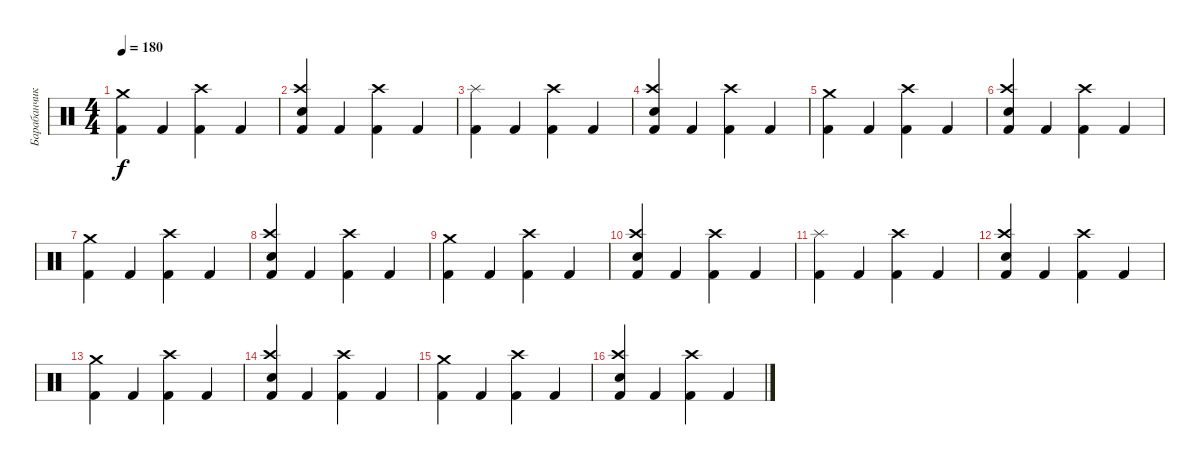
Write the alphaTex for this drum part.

\track ("Барабанчики" "Барабанчик") {instrument percussion}
\staff {score}
\articulation defaults
\ts (4 4)
\tempo 180
\clef neutral
\ks c
("Crash medium (hit)" "Kick (hit) 2").4{dy f} "Kick (hit) 2".4 ("Crash high (hit)" "Kick (hit) 2").4 "Kick (hit) 2".4 |
("Crash high (hit)" "Electric Snare (hit)" "Kick (hit) 2").4 "Kick (hit) 2".4 ("Crash high (hit)" "Kick (hit) 2").4 "Kick (hit) 2".4 |
("Splash (hit)" "Kick (hit) 2").4 "Kick (hit) 2".4 ("Crash high (hit)" "Kick (hit) 2").4 "Kick (hit) 2".4 |
("Crash high (hit)" "Electric Snare (hit)" "Kick (hit) 2").4 "Kick (hit) 2".4 ("Crash high (hit)" "Kick (hit) 2").4 "Kick (hit) 2".4 |
("Crash medium (hit)" "Kick (hit) 2").4 "Kick (hit) 2".4 ("Crash high (hit)" "Kick (hit) 2").4 "Kick (hit) 2".4 |
("Crash high (hit)" "Electric Snare (hit)" "Kick (hit) 2").4 "Kick (hit) 2".4 ("Crash high (hit)" "Kick (hit) 2").4 "Kick (hit) 2".4 |
("Crash medium (hit)" "Kick (hit) 2").4 "Kick (hit) 2".4 ("Crash high (hit)" "Kick (hit) 2").4 "Kick (hit) 2".4 |
("Crash high (hit)" "Electric Snare (hit)" "Kick (hit) 2").4 "Kick (hit) 2".4 ("Crash high (hit)" "Kick (hit) 2").4 "Kick (hit) 2".4 |
("Crash medium (hit)" "Kick (hit) 2").4 "Kick (hit) 2".4 ("Crash high (hit)" "Kick (hit) 2").4 "Kick (hit) 2".4 |
("Crash high (hit)" "Electric Snare (hit)" "Kick (hit) 2").4 "Kick (hit) 2".4 ("Crash high (hit)" "Kick (hit) 2").4 "Kick (hit) 2".4 |
("Splash (hit)" "Kick (hit) 2").4 "Kick (hit) 2".4 ("Crash high (hit)" "Kick (hit) 2").4 "Kick (hit) 2".4 |
("Crash high (hit)" "Electric Snare (hit)" "Kick (hit) 2").4 "Kick (hit) 2".4 ("Crash high (hit)" "Kick (hit) 2").4 "Kick (hit) 2".4 |
("Crash medium (hit)" "Kick (hit) 2").4 "Kick (hit) 2".4 ("Crash high (hit)" "Kick (hit) 2").4 "Kick (hit) 2".4 |
("Crash high (hit)" "Electric Snare (hit)" "Kick (hit) 2").4 "Kick (hit) 2".4 ("Crash high (hit)" "Kick (hit) 2").4 "Kick (hit) 2".4 |
("Crash medium (hit)" "Kick (hit) 2").4 "Kick (hit) 2".4 ("Crash high (hit)" "Kick (hit) 2").4 "Kick (hit) 2".4 |
("Crash high (hit)" "Electric Snare (hit)" "Kick (hit) 2").4 "Kick (hit) 2".4 ("Crash high (hit)" "Kick (hit) 2").4 "Kick (hit) 2".4
